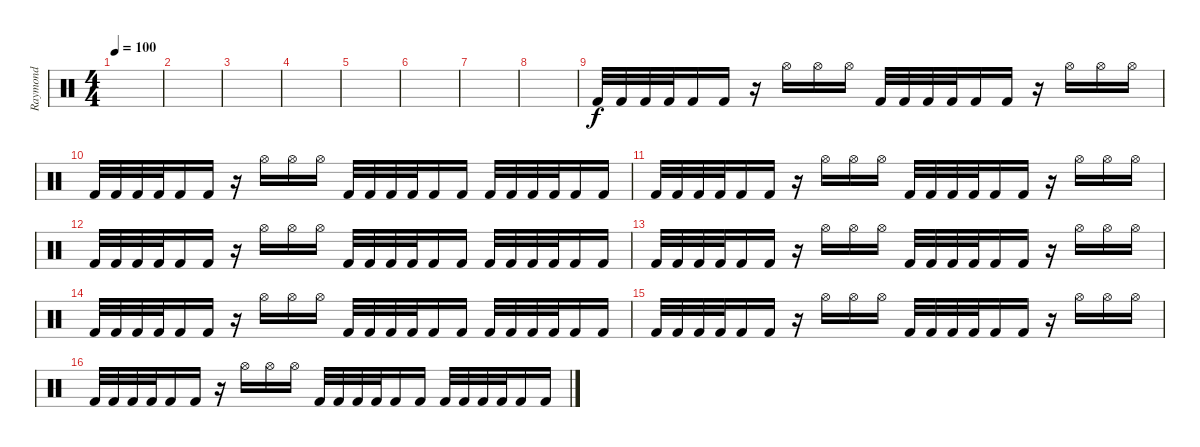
\track ("Raymond" "Raymond") {instrument percussion}
\staff {score}
\articulation defaults
\ts (4 4)
\tempo 100
\clef neutral
\ks c
|
|
|
|
|
|
|
|
"Kick (hit) 2".32 "Kick (hit) 2".32 "Kick (hit) 2".32 "Kick (hit) 2".32 "Kick (hit) 2".16 "Kick (hit) 2".16 r.16 "Hi-Hat (open)".16 "Hi-Hat (open)".16 "Hi-Hat (open)".16 "Kick (hit) 2".32 "Kick (hit) 2".32 "Kick (hit) 2".32 "Kick (hit) 2".32 "Kick (hit) 2".16 "Kick (hit) 2".16 r.16 "Hi-Hat (open)".16 "Hi-Hat (open)".16 "Hi-Hat (open)".16 |
"Kick (hit) 2".32 "Kick (hit) 2".32 "Kick (hit) 2".32 "Kick (hit) 2".32 "Kick (hit) 2".16 "Kick (hit) 2".16 r.16 "Hi-Hat (open)".16 "Hi-Hat (open)".16 "Hi-Hat (open)".16 "Kick (hit) 2".32 "Kick (hit) 2".32 "Kick (hit) 2".32 "Kick (hit) 2".32 "Kick (hit) 2".16 "Kick (hit) 2".16 "Kick (hit) 2".32 "Kick (hit) 2".32 "Kick (hit) 2".32 "Kick (hit) 2".32 "Kick (hit) 2".16 "Kick (hit) 2".16 |
"Kick (hit) 2".32 "Kick (hit) 2".32 "Kick (hit) 2".32 "Kick (hit) 2".32 "Kick (hit) 2".16 "Kick (hit) 2".16 r.16 "Hi-Hat (open)".16 "Hi-Hat (open)".16 "Hi-Hat (open)".16 "Kick (hit) 2".32 "Kick (hit) 2".32 "Kick (hit) 2".32 "Kick (hit) 2".32 "Kick (hit) 2".16 "Kick (hit) 2".16 r.16 "Hi-Hat (open)".16 "Hi-Hat (open)".16 "Hi-Hat (open)".16 |
"Kick (hit) 2".32 "Kick (hit) 2".32 "Kick (hit) 2".32 "Kick (hit) 2".32 "Kick (hit) 2".16 "Kick (hit) 2".16 r.16 "Hi-Hat (open)".16 "Hi-Hat (open)".16 "Hi-Hat (open)".16 "Kick (hit) 2".32 "Kick (hit) 2".32 "Kick (hit) 2".32 "Kick (hit) 2".32 "Kick (hit) 2".16 "Kick (hit) 2".16 "Kick (hit) 2".32 "Kick (hit) 2".32 "Kick (hit) 2".32 "Kick (hit) 2".32 "Kick (hit) 2".16 "Kick (hit) 2".16 |
"Kick (hit) 2".32 "Kick (hit) 2".32 "Kick (hit) 2".32 "Kick (hit) 2".32 "Kick (hit) 2".16 "Kick (hit) 2".16 r.16 "Hi-Hat (open)".16 "Hi-Hat (open)".16 "Hi-Hat (open)".16 "Kick (hit) 2".32 "Kick (hit) 2".32 "Kick (hit) 2".32 "Kick (hit) 2".32 "Kick (hit) 2".16 "Kick (hit) 2".16 r.16 "Hi-Hat (open)".16 "Hi-Hat (open)".16 "Hi-Hat (open)".16 |
"Kick (hit) 2".32 "Kick (hit) 2".32 "Kick (hit) 2".32 "Kick (hit) 2".32 "Kick (hit) 2".16 "Kick (hit) 2".16 r.16 "Hi-Hat (open)".16 "Hi-Hat (open)".16 "Hi-Hat (open)".16 "Kick (hit) 2".32 "Kick (hit) 2".32 "Kick (hit) 2".32 "Kick (hit) 2".32 "Kick (hit) 2".16 "Kick (hit) 2".16 "Kick (hit) 2".32 "Kick (hit) 2".32 "Kick (hit) 2".32 "Kick (hit) 2".32 "Kick (hit) 2".16 "Kick (hit) 2".16 |
"Kick (hit) 2".32 "Kick (hit) 2".32 "Kick (hit) 2".32 "Kick (hit) 2".32 "Kick (hit) 2".16 "Kick (hit) 2".16 r.16 "Hi-Hat (open)".16 "Hi-Hat (open)".16 "Hi-Hat (open)".16 "Kick (hit) 2".32 "Kick (hit) 2".32 "Kick (hit) 2".32 "Kick (hit) 2".32 "Kick (hit) 2".16 "Kick (hit) 2".16 r.16 "Hi-Hat (open)".16 "Hi-Hat (open)".16 "Hi-Hat (open)".16 |
"Kick (hit) 2".32 "Kick (hit) 2".32 "Kick (hit) 2".32 "Kick (hit) 2".32 "Kick (hit) 2".16 "Kick (hit) 2".16 r.16 "Hi-Hat (open)".16 "Hi-Hat (open)".16 "Hi-Hat (open)".16 "Kick (hit) 2".32 "Kick (hit) 2".32 "Kick (hit) 2".32 "Kick (hit) 2".32 "Kick (hit) 2".16 "Kick (hit) 2".16 "Kick (hit) 2".32 "Kick (hit) 2".32 "Kick (hit) 2".32 "Kick (hit) 2".32 "Kick (hit) 2".16 "Kick (hit) 2".16
